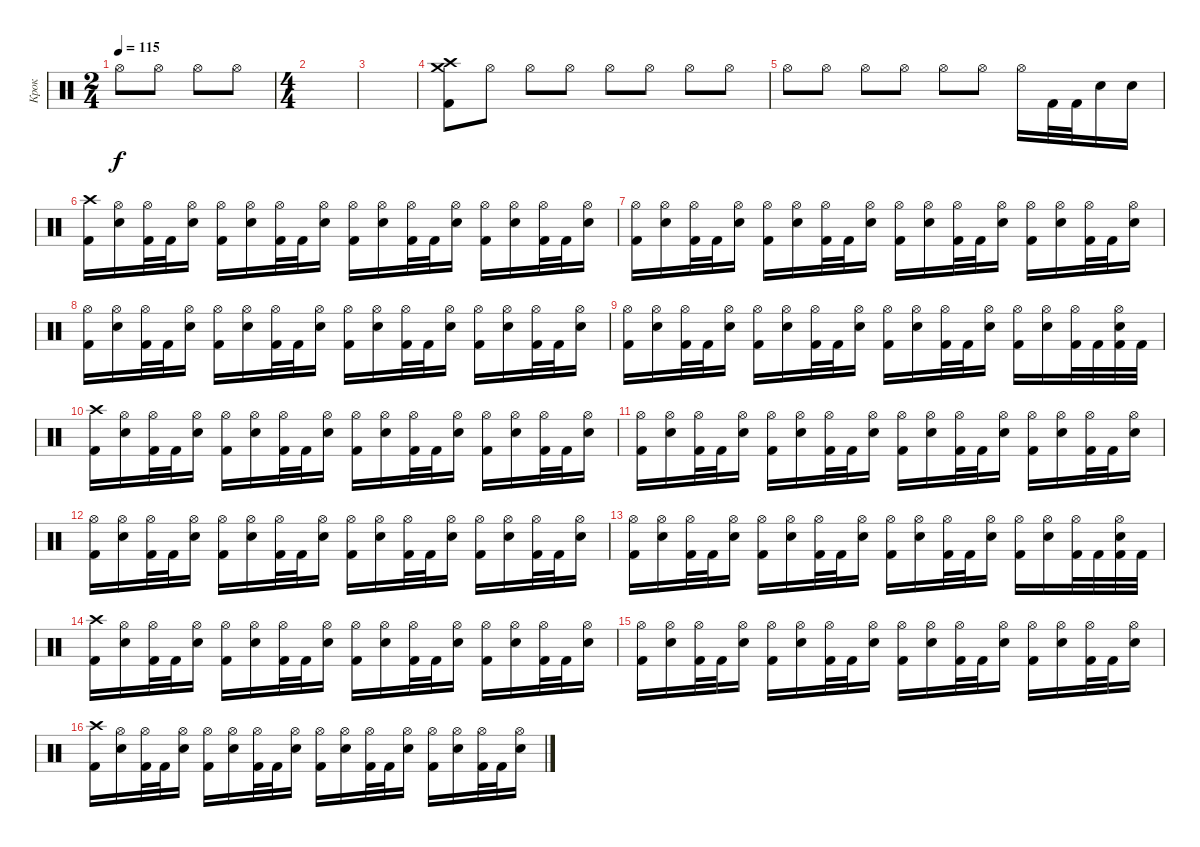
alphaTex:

\track ("Крок" "Крок") {instrument percussion}
\staff {score}
\articulation defaults
\ts (2 4)
\tempo 115
\clef neutral
\ks c "Hi-Hat (open)".8{dy f} "Hi-Hat (open)".8 "Hi-Hat (open)".8 "Hi-Hat (open)".8
|
\ts (4 4)
|
|
("Crash high (hit)" "Crash medium (hit)" "Kick (hit) 2").8 "Hi-Hat (open)".8 "Hi-Hat (open)".8 "Hi-Hat (open)".8 "Hi-Hat (open)".8 "Hi-Hat (open)".8 "Hi-Hat (open)".8 "Hi-Hat (open)".8 |
"Hi-Hat (open)".8 "Hi-Hat (open)".8 "Hi-Hat (open)".8 "Hi-Hat (open)".8 "Hi-Hat (open)".8 "Hi-Hat (open)".8 "Hi-Hat (open)".16 "Kick (hit) 2".32 "Kick (hit) 2".32 "Electric Snare (hit)".16 "Electric Snare (hit)".16 |
("Crash high (hit)" "Kick (hit) 2").16 ("Hi-Hat (open)" "Electric Snare (hit)").16 ("Hi-Hat (open)" "Kick (hit) 2").32 "Kick (hit) 2".32 ("Hi-Hat (open)" "Electric Snare (hit)").16 ("Hi-Hat (open)" "Kick (hit) 2").16 ("Hi-Hat (open)" "Electric Snare (hit)").16 ("Hi-Hat (open)" "Kick (hit) 2").32 "Kick (hit) 2".32 ("Hi-Hat (open)" "Electric Snare (hit)").16 ("Hi-Hat (open)" "Kick (hit) 2").16 ("Hi-Hat (open)" "Electric Snare (hit)").16 ("Hi-Hat (open)" "Kick (hit) 2").32 "Kick (hit) 2".32 ("Hi-Hat (open)" "Electric Snare (hit)").16 ("Hi-Hat (open)" "Kick (hit) 2").16 ("Hi-Hat (open)" "Electric Snare (hit)").16 ("Hi-Hat (open)" "Kick (hit) 2").32 "Kick (hit) 2".32 ("Hi-Hat (open)" "Electric Snare (hit)").16 |
("Hi-Hat (open)" "Kick (hit) 2").16 ("Hi-Hat (open)" "Electric Snare (hit)").16 ("Hi-Hat (open)" "Kick (hit) 2").32 "Kick (hit) 2".32 ("Hi-Hat (open)" "Electric Snare (hit)").16 ("Hi-Hat (open)" "Kick (hit) 2").16 ("Hi-Hat (open)" "Electric Snare (hit)").16 ("Hi-Hat (open)" "Kick (hit) 2").32 "Kick (hit) 2".32 ("Hi-Hat (open)" "Electric Snare (hit)").16 ("Hi-Hat (open)" "Kick (hit) 2").16 ("Hi-Hat (open)" "Electric Snare (hit)").16 ("Hi-Hat (open)" "Kick (hit) 2").32 "Kick (hit) 2".32 ("Hi-Hat (open)" "Electric Snare (hit)").16 ("Hi-Hat (open)" "Kick (hit) 2").16 ("Hi-Hat (open)" "Electric Snare (hit)").16 ("Hi-Hat (open)" "Kick (hit) 2").32 "Kick (hit) 2".32 ("Hi-Hat (open)" "Electric Snare (hit)").16 |
("Hi-Hat (open)" "Kick (hit) 2").16 ("Hi-Hat (open)" "Electric Snare (hit)").16 ("Hi-Hat (open)" "Kick (hit) 2").32 "Kick (hit) 2".32 ("Hi-Hat (open)" "Electric Snare (hit)").16 ("Hi-Hat (open)" "Kick (hit) 2").16 ("Hi-Hat (open)" "Electric Snare (hit)").16 ("Hi-Hat (open)" "Kick (hit) 2").32 "Kick (hit) 2".32 ("Hi-Hat (open)" "Electric Snare (hit)").16 ("Hi-Hat (open)" "Kick (hit) 2").16 ("Hi-Hat (open)" "Electric Snare (hit)").16 ("Hi-Hat (open)" "Kick (hit) 2").32 "Kick (hit) 2".32 ("Hi-Hat (open)" "Electric Snare (hit)").16 ("Hi-Hat (open)" "Kick (hit) 2").16 ("Hi-Hat (open)" "Electric Snare (hit)").16 ("Hi-Hat (open)" "Kick (hit) 2").32 "Kick (hit) 2".32 ("Hi-Hat (open)" "Electric Snare (hit)").16 |
("Hi-Hat (open)" "Kick (hit) 2").16 ("Hi-Hat (open)" "Electric Snare (hit)").16 ("Hi-Hat (open)" "Kick (hit) 2").32 "Kick (hit) 2".32 ("Hi-Hat (open)" "Electric Snare (hit)").16 ("Hi-Hat (open)" "Kick (hit) 2").16 ("Hi-Hat (open)" "Electric Snare (hit)").16 ("Hi-Hat (open)" "Kick (hit) 2").32 "Kick (hit) 2".32 ("Hi-Hat (open)" "Electric Snare (hit)").16 ("Hi-Hat (open)" "Kick (hit) 2").16 ("Hi-Hat (open)" "Electric Snare (hit)").16 ("Hi-Hat (open)" "Kick (hit) 2").32 "Kick (hit) 2".32 ("Hi-Hat (open)" "Electric Snare (hit)").16 ("Hi-Hat (open)" "Kick (hit) 2").16 ("Hi-Hat (open)" "Electric Snare (hit)").16 ("Hi-Hat (open)" "Kick (hit) 2").32 "Kick (hit) 2".32 ("Hi-Hat (open)" "Electric Snare (hit)" "Kick (hit) 2").32 "Kick (hit) 2".32 |
("Crash high (hit)" "Kick (hit) 2").16 ("Hi-Hat (open)" "Electric Snare (hit)").16 ("Hi-Hat (open)" "Kick (hit) 2").32 "Kick (hit) 2".32 ("Hi-Hat (open)" "Electric Snare (hit)").16 ("Hi-Hat (open)" "Kick (hit) 2").16 ("Hi-Hat (open)" "Electric Snare (hit)").16 ("Hi-Hat (open)" "Kick (hit) 2").32 "Kick (hit) 2".32 ("Hi-Hat (open)" "Electric Snare (hit)").16 ("Hi-Hat (open)" "Kick (hit) 2").16 ("Hi-Hat (open)" "Electric Snare (hit)").16 ("Hi-Hat (open)" "Kick (hit) 2").32 "Kick (hit) 2".32 ("Hi-Hat (open)" "Electric Snare (hit)").16 ("Hi-Hat (open)" "Kick (hit) 2").16 ("Hi-Hat (open)" "Electric Snare (hit)").16 ("Hi-Hat (open)" "Kick (hit) 2").32 "Kick (hit) 2".32 ("Hi-Hat (open)" "Electric Snare (hit)").16 |
("Hi-Hat (open)" "Kick (hit) 2").16 ("Hi-Hat (open)" "Electric Snare (hit)").16 ("Hi-Hat (open)" "Kick (hit) 2").32 "Kick (hit) 2".32 ("Hi-Hat (open)" "Electric Snare (hit)").16 ("Hi-Hat (open)" "Kick (hit) 2").16 ("Hi-Hat (open)" "Electric Snare (hit)").16 ("Hi-Hat (open)" "Kick (hit) 2").32 "Kick (hit) 2".32 ("Hi-Hat (open)" "Electric Snare (hit)").16 ("Hi-Hat (open)" "Kick (hit) 2").16 ("Hi-Hat (open)" "Electric Snare (hit)").16 ("Hi-Hat (open)" "Kick (hit) 2").32 "Kick (hit) 2".32 ("Hi-Hat (open)" "Electric Snare (hit)").16 ("Hi-Hat (open)" "Kick (hit) 2").16 ("Hi-Hat (open)" "Electric Snare (hit)").16 ("Hi-Hat (open)" "Kick (hit) 2").32 "Kick (hit) 2".32 ("Hi-Hat (open)" "Electric Snare (hit)").16 |
("Hi-Hat (open)" "Kick (hit) 2").16 ("Hi-Hat (open)" "Electric Snare (hit)").16 ("Hi-Hat (open)" "Kick (hit) 2").32 "Kick (hit) 2".32 ("Hi-Hat (open)" "Electric Snare (hit)").16 ("Hi-Hat (open)" "Kick (hit) 2").16 ("Hi-Hat (open)" "Electric Snare (hit)").16 ("Hi-Hat (open)" "Kick (hit) 2").32 "Kick (hit) 2".32 ("Hi-Hat (open)" "Electric Snare (hit)").16 ("Hi-Hat (open)" "Kick (hit) 2").16 ("Hi-Hat (open)" "Electric Snare (hit)").16 ("Hi-Hat (open)" "Kick (hit) 2").32 "Kick (hit) 2".32 ("Hi-Hat (open)" "Electric Snare (hit)").16 ("Hi-Hat (open)" "Kick (hit) 2").16 ("Hi-Hat (open)" "Electric Snare (hit)").16 ("Hi-Hat (open)" "Kick (hit) 2").32 "Kick (hit) 2".32 ("Hi-Hat (open)" "Electric Snare (hit)").16 |
("Hi-Hat (open)" "Kick (hit) 2").16 ("Hi-Hat (open)" "Electric Snare (hit)").16 ("Hi-Hat (open)" "Kick (hit) 2").32 "Kick (hit) 2".32 ("Hi-Hat (open)" "Electric Snare (hit)").16 ("Hi-Hat (open)" "Kick (hit) 2").16 ("Hi-Hat (open)" "Electric Snare (hit)").16 ("Hi-Hat (open)" "Kick (hit) 2").32 "Kick (hit) 2".32 ("Hi-Hat (open)" "Electric Snare (hit)").16 ("Hi-Hat (open)" "Kick (hit) 2").16 ("Hi-Hat (open)" "Electric Snare (hit)").16 ("Hi-Hat (open)" "Kick (hit) 2").32 "Kick (hit) 2".32 ("Hi-Hat (open)" "Electric Snare (hit)").16 ("Hi-Hat (open)" "Kick (hit) 2").16 ("Hi-Hat (open)" "Electric Snare (hit)").16 ("Hi-Hat (open)" "Kick (hit) 2").32 "Kick (hit) 2".32 ("Hi-Hat (open)" "Electric Snare (hit)" "Kick (hit) 2").32 "Kick (hit) 2".32 |
("Crash high (hit)" "Kick (hit) 2").16 ("Hi-Hat (open)" "Electric Snare (hit)").16 ("Hi-Hat (open)" "Kick (hit) 2").32 "Kick (hit) 2".32 ("Hi-Hat (open)" "Electric Snare (hit)").16 ("Hi-Hat (open)" "Kick (hit) 2").16 ("Hi-Hat (open)" "Electric Snare (hit)").16 ("Hi-Hat (open)" "Kick (hit) 2").32 "Kick (hit) 2".32 ("Hi-Hat (open)" "Electric Snare (hit)").16 ("Hi-Hat (open)" "Kick (hit) 2").16 ("Hi-Hat (open)" "Electric Snare (hit)").16 ("Hi-Hat (open)" "Kick (hit) 2").32 "Kick (hit) 2".32 ("Hi-Hat (open)" "Electric Snare (hit)").16 ("Hi-Hat (open)" "Kick (hit) 2").16 ("Hi-Hat (open)" "Electric Snare (hit)").16 ("Hi-Hat (open)" "Kick (hit) 2").32 "Kick (hit) 2".32 ("Hi-Hat (open)" "Electric Snare (hit)").16 |
("Hi-Hat (open)" "Kick (hit) 2").16 ("Hi-Hat (open)" "Electric Snare (hit)").16 ("Hi-Hat (open)" "Kick (hit) 2").32 "Kick (hit) 2".32 ("Hi-Hat (open)" "Electric Snare (hit)").16 ("Hi-Hat (open)" "Kick (hit) 2").16 ("Hi-Hat (open)" "Electric Snare (hit)").16 ("Hi-Hat (open)" "Kick (hit) 2").32 "Kick (hit) 2".32 ("Hi-Hat (open)" "Electric Snare (hit)").16 ("Hi-Hat (open)" "Kick (hit) 2").16 ("Hi-Hat (open)" "Electric Snare (hit)").16 ("Hi-Hat (open)" "Kick (hit) 2").32 "Kick (hit) 2".32 ("Hi-Hat (open)" "Electric Snare (hit)").16 ("Hi-Hat (open)" "Kick (hit) 2").16 ("Hi-Hat (open)" "Electric Snare (hit)").16 ("Hi-Hat (open)" "Kick (hit) 2").32 "Kick (hit) 2".32 ("Hi-Hat (open)" "Electric Snare (hit)").16 |
("Crash high (hit)" "Kick (hit) 2").16 ("Hi-Hat (open)" "Electric Snare (hit)").16 ("Hi-Hat (open)" "Kick (hit) 2").32 "Kick (hit) 2".32 ("Hi-Hat (open)" "Electric Snare (hit)").16 ("Hi-Hat (open)" "Kick (hit) 2").16 ("Hi-Hat (open)" "Electric Snare (hit)").16 ("Hi-Hat (open)" "Kick (hit) 2").32 "Kick (hit) 2".32 ("Hi-Hat (open)" "Electric Snare (hit)").16 ("Hi-Hat (open)" "Kick (hit) 2").16 ("Hi-Hat (open)" "Electric Snare (hit)").16 ("Hi-Hat (open)" "Kick (hit) 2").32 "Kick (hit) 2".32 ("Hi-Hat (open)" "Electric Snare (hit)").16 ("Hi-Hat (open)" "Kick (hit) 2").16 ("Hi-Hat (open)" "Electric Snare (hit)").16 ("Hi-Hat (open)" "Kick (hit) 2").32 "Kick (hit) 2".32 ("Hi-Hat (open)" "Electric Snare (hit)").16
